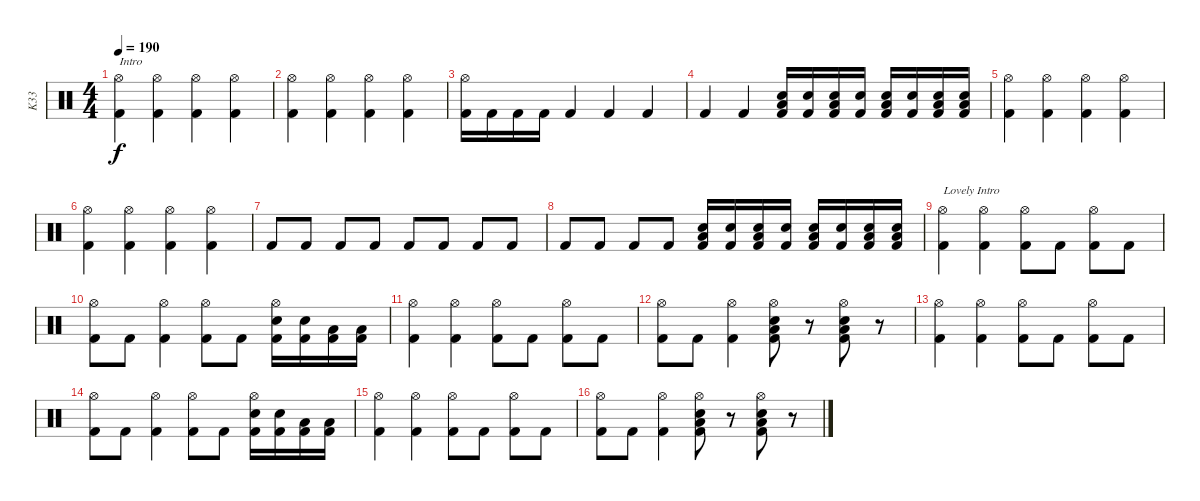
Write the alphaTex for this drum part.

\track ("K33" "K33") {instrument percussion}
\staff {score}
\articulation defaults
\ts (4 4)
\tempo 190
\clef neutral
\ks c
("Hi-Hat (open)" "Kick (hit) 2").4{txt "Intro" dy f} ("Hi-Hat (open)" "Kick (hit) 2").4 ("Hi-Hat (open)" "Kick (hit) 2").4 ("Hi-Hat (open)" "Kick (hit) 2").4 |
("Hi-Hat (open)" "Kick (hit) 2").4 ("Hi-Hat (open)" "Kick (hit) 2").4 ("Hi-Hat (open)" "Kick (hit) 2").4 ("Hi-Hat (open)" "Kick (hit) 2").4 |
("Hi-Hat (open)" "Kick (hit) 2").16 "Kick (hit) 2".16 "Kick (hit) 2".16 "Kick (hit) 2".16 "Kick (hit) 2".4 "Kick (hit) 2".4 "Kick (hit) 2".4 |
"Kick (hit) 2".4 "Kick (hit) 2".4 ("Low Floor Tom (hit)" "Electric Snare (hit)" "Kick (hit) 2").16 ("Electric Snare (hit)" "Kick (hit) 2").16 ("Low Floor Tom (hit)" "Electric Snare (hit)" "Kick (hit) 2").16 ("Electric Snare (hit)" "Kick (hit) 2").16 ("Low Floor Tom (hit)" "Electric Snare (hit)" "Kick (hit) 2").16 ("Electric Snare (hit)" "Kick (hit) 2").16 ("Low Floor Tom (hit)" "Electric Snare (hit)" "Kick (hit) 2").16 ("Low Floor Tom (hit)" "Electric Snare (hit)" "Kick (hit) 2").16 |
("Hi-Hat (open)" "Kick (hit) 2").4 ("Hi-Hat (open)" "Kick (hit) 2").4 ("Hi-Hat (open)" "Kick (hit) 2").4 ("Hi-Hat (open)" "Kick (hit) 2").4 |
("Hi-Hat (open)" "Kick (hit) 2").4 ("Hi-Hat (open)" "Kick (hit) 2").4 ("Hi-Hat (open)" "Kick (hit) 2").4 ("Hi-Hat (open)" "Kick (hit) 2").4 |
"Kick (hit) 2".8 "Kick (hit) 2".8 "Kick (hit) 2".8 "Kick (hit) 2".8 "Kick (hit) 2".8 "Kick (hit) 2".8 "Kick (hit) 2".8 "Kick (hit) 2".8 |
"Kick (hit) 2".8 "Kick (hit) 2".8 "Kick (hit) 2".8 "Kick (hit) 2".8 ("Low Floor Tom (hit)" "Electric Snare (hit)" "Kick (hit) 2").16 ("Electric Snare (hit)" "Kick (hit) 2").16 ("Low Floor Tom (hit)" "Electric Snare (hit)" "Kick (hit) 2").16 ("Electric Snare (hit)" "Kick (hit) 2").16 ("Low Floor Tom (hit)" "Electric Snare (hit)" "Kick (hit) 2").16 ("Electric Snare (hit)" "Kick (hit) 2").16 ("Low Floor Tom (hit)" "Electric Snare (hit)" "Kick (hit) 2").16 ("Low Floor Tom (hit)" "Electric Snare (hit)" "Kick (hit) 2").16 |
("Hi-Hat (open)" "Kick (hit) 2").4{txt "Lovely Intro"} ("Hi-Hat (open)" "Kick (hit) 2").4 ("Hi-Hat (open)" "Kick (hit) 2").8 "Kick (hit) 2".8 ("Hi-Hat (open)" "Kick (hit) 2").8 "Kick (hit) 2".8 |
("Hi-Hat (open)" "Kick (hit) 2").8 "Kick (hit) 2".8 ("Hi-Hat (open)" "Kick (hit) 2").4 ("Hi-Hat (open)" "Kick (hit) 2").8 "Kick (hit) 2".8 ("Hi-Hat (open)" "Electric Snare (hit)" "Kick (hit) 2").16 ("Electric Snare (hit)" "Kick (hit) 2").16 ("Low Floor Tom (hit)" "Kick (hit) 2").16 ("Low Floor Tom (hit)" "Kick (hit) 2").16 |
("Hi-Hat (open)" "Kick (hit) 2").4 ("Hi-Hat (open)" "Kick (hit) 2").4 ("Hi-Hat (open)" "Kick (hit) 2").8 "Kick (hit) 2".8 ("Hi-Hat (open)" "Kick (hit) 2").8 "Kick (hit) 2".8 |
("Hi-Hat (open)" "Kick (hit) 2").8 "Kick (hit) 2".8 ("Hi-Hat (open)" "Kick (hit) 2").4 ("Hi-Hat (open)" "Low Floor Tom (hit)" "Electric Snare (hit)" "Kick (hit) 2").8 r.8 ("Hi-Hat (open)" "Low Floor Tom (hit)" "Electric Snare (hit)" "Kick (hit) 2").8 r.8 |
("Hi-Hat (open)" "Kick (hit) 2").4 ("Hi-Hat (open)" "Kick (hit) 2").4 ("Hi-Hat (open)" "Kick (hit) 2").8 "Kick (hit) 2".8 ("Hi-Hat (open)" "Kick (hit) 2").8 "Kick (hit) 2".8 |
("Hi-Hat (open)" "Kick (hit) 2").8 "Kick (hit) 2".8 ("Hi-Hat (open)" "Kick (hit) 2").4 ("Hi-Hat (open)" "Kick (hit) 2").8 "Kick (hit) 2".8 ("Hi-Hat (open)" "Electric Snare (hit)" "Kick (hit) 2").16 ("Electric Snare (hit)" "Kick (hit) 2").16 ("Low Floor Tom (hit)" "Kick (hit) 2").16 ("Low Floor Tom (hit)" "Kick (hit) 2").16 |
("Hi-Hat (open)" "Kick (hit) 2").4 ("Hi-Hat (open)" "Kick (hit) 2").4 ("Hi-Hat (open)" "Kick (hit) 2").8 "Kick (hit) 2".8 ("Hi-Hat (open)" "Kick (hit) 2").8 "Kick (hit) 2".8 |
("Hi-Hat (open)" "Kick (hit) 2").8 "Kick (hit) 2".8 ("Hi-Hat (open)" "Kick (hit) 2").4 ("Hi-Hat (open)" "Low Floor Tom (hit)" "Electric Snare (hit)" "Kick (hit) 2").8 r.8 ("Hi-Hat (open)" "Low Floor Tom (hit)" "Electric Snare (hit)" "Kick (hit) 2").8 r.8
